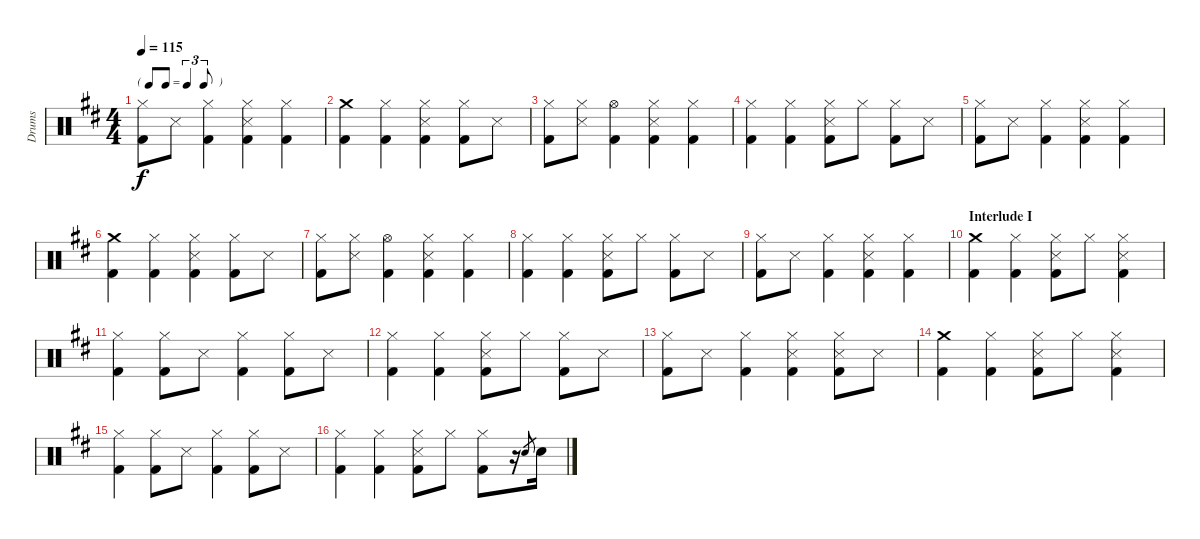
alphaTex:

\track ("Drums" "Drums") {instrument percussion}
\staff {score}
\articulation defaults
\ts (4 4)
\tf triplet8th
\tempo 115
\clef neutral
\ks d
("Hi-Hat (closed)" "Kick (hit) 2").8{dy f} "Snare (side stick) 3".8 ("Hi-Hat (closed)" "Kick (hit) 2").4 ("Hi-Hat (closed)" "Snare (side stick) 3" "Kick (hit) 2").4 ("Hi-Hat (closed)" "Kick (hit) 2").4 |
("Crash medium (hit)" "Kick (hit) 2").4 ("Hi-Hat (closed)" "Kick (hit) 2").4 ("Hi-Hat (closed)" "Snare (side stick) 3" "Kick (hit) 2").4 ("Hi-Hat (closed)" "Kick (hit) 2").8 "Snare (side stick) 3".8 |
("Hi-Hat (closed)" "Kick (hit) 2").8 ("Hi-Hat (closed)" "Snare (side stick) 3").8 ("Hi-Hat (open)" "Kick (hit) 2").4 ("Hi-Hat (closed)" "Snare (side stick) 3" "Kick (hit) 2").4 ("Hi-Hat (closed)" "Kick (hit) 2").4 |
("Hi-Hat (closed)" "Kick (hit) 2").4 ("Hi-Hat (closed)" "Kick (hit) 2").4 ("Hi-Hat (closed)" "Snare (side stick) 3" "Kick (hit) 2").8 "Hi-Hat (closed)".8 ("Hi-Hat (closed)" "Kick (hit) 2").8 "Snare (side stick) 3".8 |
("Hi-Hat (closed)" "Kick (hit) 2").8 "Snare (side stick) 3".8 ("Hi-Hat (closed)" "Kick (hit) 2").4 ("Hi-Hat (closed)" "Snare (side stick) 3" "Kick (hit) 2").4 ("Hi-Hat (closed)" "Kick (hit) 2").4 |
("Crash medium (hit)" "Kick (hit) 2").4 ("Hi-Hat (closed)" "Kick (hit) 2").4 ("Hi-Hat (closed)" "Snare (side stick) 3" "Kick (hit) 2").4 ("Hi-Hat (closed)" "Kick (hit) 2").8 "Snare (side stick) 3".8 |
("Hi-Hat (closed)" "Kick (hit) 2").8 ("Hi-Hat (closed)" "Snare (side stick) 3").8 ("Hi-Hat (open)" "Kick (hit) 2").4 ("Hi-Hat (closed)" "Snare (side stick) 3" "Kick (hit) 2").4 ("Hi-Hat (closed)" "Kick (hit) 2").4 |
("Hi-Hat (closed)" "Kick (hit) 2").4 ("Hi-Hat (closed)" "Kick (hit) 2").4 ("Hi-Hat (closed)" "Snare (side stick) 3" "Kick (hit) 2").8 "Hi-Hat (closed)".8 ("Hi-Hat (closed)" "Kick (hit) 2").8 "Snare (side stick) 3".8 |
("Hi-Hat (closed)" "Kick (hit) 2").8 "Snare (side stick) 3".8 ("Hi-Hat (closed)" "Kick (hit) 2").4 ("Hi-Hat (closed)" "Snare (side stick) 3" "Kick (hit) 2").4 ("Hi-Hat (closed)" "Kick (hit) 2").4 |
\section ("" "Interlude I")
("Crash medium (hit)" "Kick (hit) 2").4 ("Hi-Hat (closed)" "Kick (hit) 2").4 ("Hi-Hat (closed)" "Snare (side stick) 3" "Kick (hit) 2").8 "Hi-Hat (closed)".8 ("Hi-Hat (closed)" "Snare (side stick) 3" "Kick (hit) 2").4 |
("Hi-Hat (closed)" "Kick (hit) 2").4 ("Hi-Hat (closed)" "Kick (hit) 2").8 "Snare (side stick) 3".8 ("Hi-Hat (closed)" "Kick (hit) 2").4 ("Hi-Hat (closed)" "Kick (hit) 2").8 "Snare (side stick) 3".8 |
("Hi-Hat (closed)" "Kick (hit) 2").4 ("Hi-Hat (closed)" "Kick (hit) 2").4 ("Hi-Hat (closed)" "Snare (side stick) 3" "Kick (hit) 2").8 "Hi-Hat (closed)".8 ("Hi-Hat (closed)" "Kick (hit) 2").8 "Snare (side stick) 3".8 |
("Hi-Hat (closed)" "Kick (hit) 2").8 "Snare (side stick) 3".8 ("Hi-Hat (closed)" "Kick (hit) 2").4 ("Hi-Hat (closed)" "Snare (side stick) 3" "Kick (hit) 2").4 ("Hi-Hat (closed)" "Snare (side stick) 3" "Kick (hit) 2").8 "Snare (side stick) 3".8 |
("Crash medium (hit)" "Kick (hit) 2").4 ("Hi-Hat (closed)" "Kick (hit) 2").4 ("Hi-Hat (closed)" "Snare (side stick) 3" "Kick (hit) 2").8 "Hi-Hat (closed)".8 ("Hi-Hat (closed)" "Snare (side stick) 3" "Kick (hit) 2").4 |
("Hi-Hat (closed)" "Kick (hit) 2").4 ("Hi-Hat (closed)" "Kick (hit) 2").8 "Snare (side stick) 3".8 ("Hi-Hat (closed)" "Kick (hit) 2").4 ("Hi-Hat (closed)" "Kick (hit) 2").8 "Snare (side stick) 3".8 |
("Hi-Hat (closed)" "Kick (hit) 2").4 ("Hi-Hat (closed)" "Kick (hit) 2").4 ("Hi-Hat (closed)" "Snare (side stick) 3" "Kick (hit) 2").8 "Hi-Hat (closed)".8 ("Hi-Hat (closed)" "Kick (hit) 2").8 r.16 "Snare (hit) 2".8{gr} "Snare (hit) 2".16
